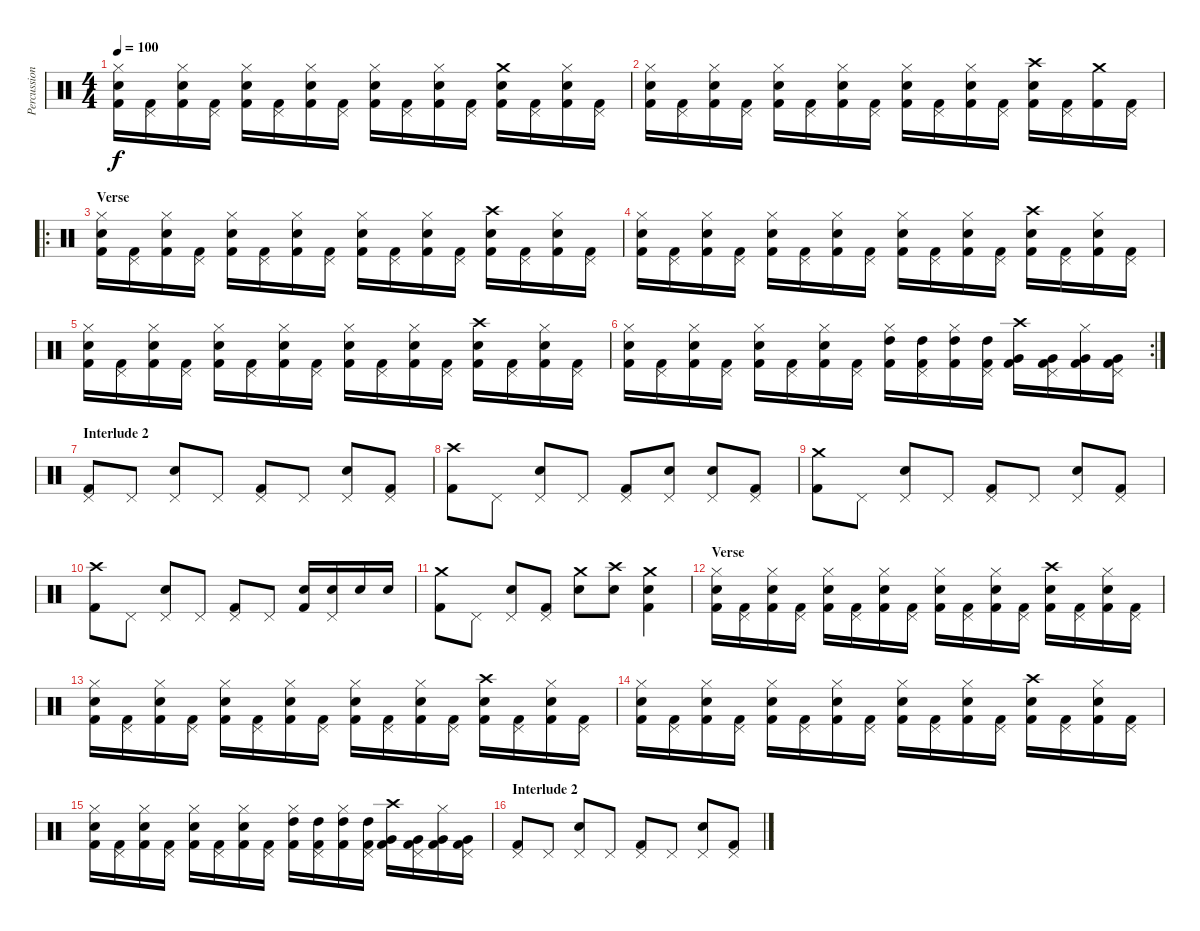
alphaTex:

\track ("Percussion" "Percussion") {instrument percussion}
\staff {score}
\articulation defaults
\ts (4 4)
\tempo 100
\clef neutral
\ks c
("Hi-Hat (closed)" "Snare (hit) 2" "Kick (hit) 2").16{dy f} ("Pedal Hi-Hat (hit)" "Kick (hit) 2").16 ("Hi-Hat (closed)" "Snare (hit) 2" "Kick (hit) 2").16 ("Pedal Hi-Hat (hit)" "Kick (hit) 2").16 ("Hi-Hat (closed)" "Snare (hit) 2" "Kick (hit) 2").16 ("Pedal Hi-Hat (hit)" "Kick (hit) 2").16 ("Hi-Hat (closed)" "Snare (hit) 2" "Kick (hit) 2").16 ("Pedal Hi-Hat (hit)" "Kick (hit) 2").16 ("Hi-Hat (closed)" "Snare (hit) 2" "Kick (hit) 2").16 ("Pedal Hi-Hat (hit)" "Kick (hit) 2").16 ("Hi-Hat (closed)" "Snare (hit) 2" "Kick (hit) 2").16 ("Pedal Hi-Hat (hit)" "Kick (hit) 2").16 ("Crash medium (hit)" "Snare (hit) 2" "Kick (hit) 2").16 ("Pedal Hi-Hat (hit)" "Kick (hit) 2").16 ("Hi-Hat (closed)" "Snare (hit) 2" "Kick (hit) 2").16 ("Pedal Hi-Hat (hit)" "Kick (hit) 2").16 |
("Hi-Hat (closed)" "Snare (hit) 2" "Kick (hit) 2").16 ("Pedal Hi-Hat (hit)" "Kick (hit) 2").16 ("Hi-Hat (closed)" "Snare (hit) 2" "Kick (hit) 2").16 ("Pedal Hi-Hat (hit)" "Kick (hit) 2").16 ("Hi-Hat (closed)" "Snare (hit) 2" "Kick (hit) 2").16 ("Pedal Hi-Hat (hit)" "Kick (hit) 2").16 ("Hi-Hat (closed)" "Snare (hit) 2" "Kick (hit) 2").16 ("Pedal Hi-Hat (hit)" "Kick (hit) 2").16 ("Hi-Hat (closed)" "Snare (hit) 2" "Kick (hit) 2").16 ("Pedal Hi-Hat (hit)" "Kick (hit) 2").16 ("Hi-Hat (closed)" "Snare (hit) 2" "Kick (hit) 2").16 ("Pedal Hi-Hat (hit)" "Kick (hit) 2").16 ("Crash high (hit)" "Snare (hit) 2" "Kick (hit) 2").16 ("Pedal Hi-Hat (hit)" "Kick (hit) 2").16 ("Crash medium (hit)" "Kick (hit) 2").16 ("Pedal Hi-Hat (hit)" "Kick (hit) 2").16 |
\ro
\section ("" "Verse")
("Hi-Hat (closed)" "Snare (hit) 2" "Kick (hit) 2").16 ("Pedal Hi-Hat (hit)" "Kick (hit) 2").16 ("Hi-Hat (closed)" "Snare (hit) 2" "Kick (hit) 2").16 ("Pedal Hi-Hat (hit)" "Kick (hit) 2").16 ("Hi-Hat (closed)" "Snare (hit) 2" "Kick (hit) 2").16 ("Pedal Hi-Hat (hit)" "Kick (hit) 2").16 ("Hi-Hat (closed)" "Snare (hit) 2" "Kick (hit) 2").16 ("Pedal Hi-Hat (hit)" "Kick (hit) 2").16 ("Hi-Hat (closed)" "Snare (hit) 2" "Kick (hit) 2").16 ("Pedal Hi-Hat (hit)" "Kick (hit) 2").16 ("Hi-Hat (closed)" "Snare (hit) 2" "Kick (hit) 2").16 ("Pedal Hi-Hat (hit)" "Kick (hit) 2").16 ("Crash high (hit)" "Snare (hit) 2" "Kick (hit) 2").16 ("Pedal Hi-Hat (hit)" "Kick (hit) 2").16 ("Hi-Hat (closed)" "Snare (hit) 2" "Kick (hit) 2").16 ("Pedal Hi-Hat (hit)" "Kick (hit) 2").16 |
("Hi-Hat (closed)" "Snare (hit) 2" "Kick (hit) 2").16 ("Pedal Hi-Hat (hit)" "Kick (hit) 2").16 ("Hi-Hat (closed)" "Snare (hit) 2" "Kick (hit) 2").16 ("Pedal Hi-Hat (hit)" "Kick (hit) 2").16 ("Hi-Hat (closed)" "Snare (hit) 2" "Kick (hit) 2").16 ("Pedal Hi-Hat (hit)" "Kick (hit) 2").16 ("Hi-Hat (closed)" "Snare (hit) 2" "Kick (hit) 2").16 ("Pedal Hi-Hat (hit)" "Kick (hit) 2").16 ("Hi-Hat (closed)" "Snare (hit) 2" "Kick (hit) 2").16 ("Pedal Hi-Hat (hit)" "Kick (hit) 2").16 ("Hi-Hat (closed)" "Snare (hit) 2" "Kick (hit) 2").16 ("Pedal Hi-Hat (hit)" "Kick (hit) 2").16 ("Crash high (hit)" "Snare (hit) 2" "Kick (hit) 2").16 ("Pedal Hi-Hat (hit)" "Kick (hit) 2").16 ("Hi-Hat (closed)" "Snare (hit) 2" "Kick (hit) 2").16 ("Pedal Hi-Hat (hit)" "Kick (hit) 2").16 |
("Hi-Hat (closed)" "Snare (hit) 2" "Kick (hit) 2").16 ("Pedal Hi-Hat (hit)" "Kick (hit) 2").16 ("Hi-Hat (closed)" "Snare (hit) 2" "Kick (hit) 2").16 ("Pedal Hi-Hat (hit)" "Kick (hit) 2").16 ("Hi-Hat (closed)" "Snare (hit) 2" "Kick (hit) 2").16 ("Pedal Hi-Hat (hit)" "Kick (hit) 2").16 ("Hi-Hat (closed)" "Snare (hit) 2" "Kick (hit) 2").16 ("Pedal Hi-Hat (hit)" "Kick (hit) 2").16 ("Hi-Hat (closed)" "Snare (hit) 2" "Kick (hit) 2").16 ("Pedal Hi-Hat (hit)" "Kick (hit) 2").16 ("Hi-Hat (closed)" "Snare (hit) 2" "Kick (hit) 2").16 ("Pedal Hi-Hat (hit)" "Kick (hit) 2").16 ("Crash high (hit)" "Snare (hit) 2" "Kick (hit) 2").16 ("Pedal Hi-Hat (hit)" "Kick (hit) 2").16 ("Hi-Hat (closed)" "Snare (hit) 2" "Kick (hit) 2").16 ("Pedal Hi-Hat (hit)" "Kick (hit) 2").16 |
\rc 2
("Hi-Hat (closed)" "Snare (hit) 2" "Kick (hit) 2").16 ("Pedal Hi-Hat (hit)" "Kick (hit) 2").16 ("Hi-Hat (closed)" "Snare (hit) 2" "Kick (hit) 2").16 ("Pedal Hi-Hat (hit)" "Kick (hit) 2").16 ("Hi-Hat (closed)" "Snare (hit) 2" "Kick (hit) 2").16 ("Pedal Hi-Hat (hit)" "Kick (hit) 2").16 ("Hi-Hat (closed)" "Snare (hit) 2" "Kick (hit) 2").16 ("Pedal Hi-Hat (hit)" "Kick (hit) 2").16 ("Hi-Hat (closed)" "High Tom (hit)" "Kick (hit) 2").16 ("Pedal Hi-Hat (hit)" "High Tom (hit)" "Kick (hit) 2").16 ("Hi-Hat (closed)" "High Tom (hit)" "Kick (hit) 2").16 ("Pedal Hi-Hat (hit)" "High Tom (hit)" "Kick (hit) 2").16 ("Crash high (hit)" "Very Low Tom (hit)" "Kick (hit) 2").16 ("Pedal Hi-Hat (hit)" "Very Low Tom (hit)" "Kick (hit) 2").16 ("Hi-Hat (closed)" "Very Low Tom (hit)" "Kick (hit) 2").16 ("Pedal Hi-Hat (hit)" "Very Low Tom (hit)" "Kick (hit) 2").16 |
\section ("" "Interlude 2")
("Pedal Hi-Hat (hit)" "Kick (hit) 2").8 "Pedal Hi-Hat (hit)".8 ("Pedal Hi-Hat (hit)" "Snare (hit) 2").8 "Pedal Hi-Hat (hit)".8 ("Pedal Hi-Hat (hit)" "Kick (hit) 2").8 "Pedal Hi-Hat (hit)".8 ("Pedal Hi-Hat (hit)" "Snare (hit) 2").8 ("Pedal Hi-Hat (hit)" "Kick (hit) 2").8 |
("Crash high (hit)" "Kick (hit) 2").8 "Pedal Hi-Hat (hit)".8 ("Pedal Hi-Hat (hit)" "Snare (hit) 2").8 "Pedal Hi-Hat (hit)".8 ("Pedal Hi-Hat (hit)" "Kick (hit) 2").8 ("Pedal Hi-Hat (hit)" "Snare (hit) 2").8 ("Pedal Hi-Hat (hit)" "Snare (hit) 2").8 ("Pedal Hi-Hat (hit)" "Kick (hit) 2").8 |
("Crash medium (hit)" "Kick (hit) 2").8 "Pedal Hi-Hat (hit)".8 ("Pedal Hi-Hat (hit)" "Snare (hit) 2").8 "Pedal Hi-Hat (hit)".8 ("Pedal Hi-Hat (hit)" "Kick (hit) 2").8 "Pedal Hi-Hat (hit)".8 ("Pedal Hi-Hat (hit)" "Snare (hit) 2").8 ("Pedal Hi-Hat (hit)" "Kick (hit) 2").8 |
("Crash high (hit)" "Kick (hit) 2").8 "Pedal Hi-Hat (hit)".8 ("Pedal Hi-Hat (hit)" "Snare (hit) 2").8 "Pedal Hi-Hat (hit)".8 ("Pedal Hi-Hat (hit)" "Kick (hit) 2").8 "Pedal Hi-Hat (hit)".8 ("Snare (hit) 2" "Kick (hit) 2").16 ("Pedal Hi-Hat (hit)" "Snare (hit) 2").16 "Snare (hit) 2".16 "Snare (hit) 2".16 |
("Crash medium (hit)" "Kick (hit) 2").8 "Pedal Hi-Hat (hit)".8 ("Pedal Hi-Hat (hit)" "Snare (hit) 2").8 ("Pedal Hi-Hat (hit)" "Kick (hit) 2").8 ("Crash medium (hit)" "Snare (hit) 2").8 ("Crash high (hit)" "Snare (hit) 2").8 ("Crash medium (hit)" "Snare (hit) 2" "Kick (hit) 2").4 |
\section ("" "Verse")
("Hi-Hat (closed)" "Snare (hit) 2" "Kick (hit) 2").16 ("Pedal Hi-Hat (hit)" "Kick (hit) 2").16 ("Hi-Hat (closed)" "Snare (hit) 2" "Kick (hit) 2").16 ("Pedal Hi-Hat (hit)" "Kick (hit) 2").16 ("Hi-Hat (closed)" "Snare (hit) 2" "Kick (hit) 2").16 ("Pedal Hi-Hat (hit)" "Kick (hit) 2").16 ("Hi-Hat (closed)" "Snare (hit) 2" "Kick (hit) 2").16 ("Pedal Hi-Hat (hit)" "Kick (hit) 2").16 ("Hi-Hat (closed)" "Snare (hit) 2" "Kick (hit) 2").16 ("Pedal Hi-Hat (hit)" "Kick (hit) 2").16 ("Hi-Hat (closed)" "Snare (hit) 2" "Kick (hit) 2").16 ("Pedal Hi-Hat (hit)" "Kick (hit) 2").16 ("Crash high (hit)" "Snare (hit) 2" "Kick (hit) 2").16 ("Pedal Hi-Hat (hit)" "Kick (hit) 2").16 ("Hi-Hat (closed)" "Snare (hit) 2" "Kick (hit) 2").16 ("Pedal Hi-Hat (hit)" "Kick (hit) 2").16 |
("Hi-Hat (closed)" "Snare (hit) 2" "Kick (hit) 2").16 ("Pedal Hi-Hat (hit)" "Kick (hit) 2").16 ("Hi-Hat (closed)" "Snare (hit) 2" "Kick (hit) 2").16 ("Pedal Hi-Hat (hit)" "Kick (hit) 2").16 ("Hi-Hat (closed)" "Snare (hit) 2" "Kick (hit) 2").16 ("Pedal Hi-Hat (hit)" "Kick (hit) 2").16 ("Hi-Hat (closed)" "Snare (hit) 2" "Kick (hit) 2").16 ("Pedal Hi-Hat (hit)" "Kick (hit) 2").16 ("Hi-Hat (closed)" "Snare (hit) 2" "Kick (hit) 2").16 ("Pedal Hi-Hat (hit)" "Kick (hit) 2").16 ("Hi-Hat (closed)" "Snare (hit) 2" "Kick (hit) 2").16 ("Pedal Hi-Hat (hit)" "Kick (hit) 2").16 ("Crash high (hit)" "Snare (hit) 2" "Kick (hit) 2").16 ("Pedal Hi-Hat (hit)" "Kick (hit) 2").16 ("Hi-Hat (closed)" "Snare (hit) 2" "Kick (hit) 2").16 ("Pedal Hi-Hat (hit)" "Kick (hit) 2").16 |
("Hi-Hat (closed)" "Snare (hit) 2" "Kick (hit) 2").16 ("Pedal Hi-Hat (hit)" "Kick (hit) 2").16 ("Hi-Hat (closed)" "Snare (hit) 2" "Kick (hit) 2").16 ("Pedal Hi-Hat (hit)" "Kick (hit) 2").16 ("Hi-Hat (closed)" "Snare (hit) 2" "Kick (hit) 2").16 ("Pedal Hi-Hat (hit)" "Kick (hit) 2").16 ("Hi-Hat (closed)" "Snare (hit) 2" "Kick (hit) 2").16 ("Pedal Hi-Hat (hit)" "Kick (hit) 2").16 ("Hi-Hat (closed)" "Snare (hit) 2" "Kick (hit) 2").16 ("Pedal Hi-Hat (hit)" "Kick (hit) 2").16 ("Hi-Hat (closed)" "Snare (hit) 2" "Kick (hit) 2").16 ("Pedal Hi-Hat (hit)" "Kick (hit) 2").16 ("Crash high (hit)" "Snare (hit) 2" "Kick (hit) 2").16 ("Pedal Hi-Hat (hit)" "Kick (hit) 2").16 ("Hi-Hat (closed)" "Snare (hit) 2" "Kick (hit) 2").16 ("Pedal Hi-Hat (hit)" "Kick (hit) 2").16 |
("Hi-Hat (closed)" "Snare (hit) 2" "Kick (hit) 2").16 ("Pedal Hi-Hat (hit)" "Kick (hit) 2").16 ("Hi-Hat (closed)" "Snare (hit) 2" "Kick (hit) 2").16 ("Pedal Hi-Hat (hit)" "Kick (hit) 2").16 ("Hi-Hat (closed)" "Snare (hit) 2" "Kick (hit) 2").16 ("Pedal Hi-Hat (hit)" "Kick (hit) 2").16 ("Hi-Hat (closed)" "Snare (hit) 2" "Kick (hit) 2").16 ("Pedal Hi-Hat (hit)" "Kick (hit) 2").16 ("Hi-Hat (closed)" "High Tom (hit)" "Kick (hit) 2").16 ("Pedal Hi-Hat (hit)" "High Tom (hit)" "Kick (hit) 2").16 ("Hi-Hat (closed)" "High Tom (hit)" "Kick (hit) 2").16 ("Pedal Hi-Hat (hit)" "High Tom (hit)" "Kick (hit) 2").16 ("Crash high (hit)" "Very Low Tom (hit)" "Kick (hit) 2").16 ("Pedal Hi-Hat (hit)" "Very Low Tom (hit)" "Kick (hit) 2").16 ("Hi-Hat (closed)" "Very Low Tom (hit)" "Kick (hit) 2").16 ("Pedal Hi-Hat (hit)" "Very Low Tom (hit)" "Kick (hit) 2").16 |
\section ("" "Interlude 2")
("Pedal Hi-Hat (hit)" "Kick (hit) 2").8 "Pedal Hi-Hat (hit)".8 ("Pedal Hi-Hat (hit)" "Snare (hit) 2").8 "Pedal Hi-Hat (hit)".8 ("Pedal Hi-Hat (hit)" "Kick (hit) 2").8 "Pedal Hi-Hat (hit)".8 ("Pedal Hi-Hat (hit)" "Snare (hit) 2").8 ("Pedal Hi-Hat (hit)" "Kick (hit) 2").8
